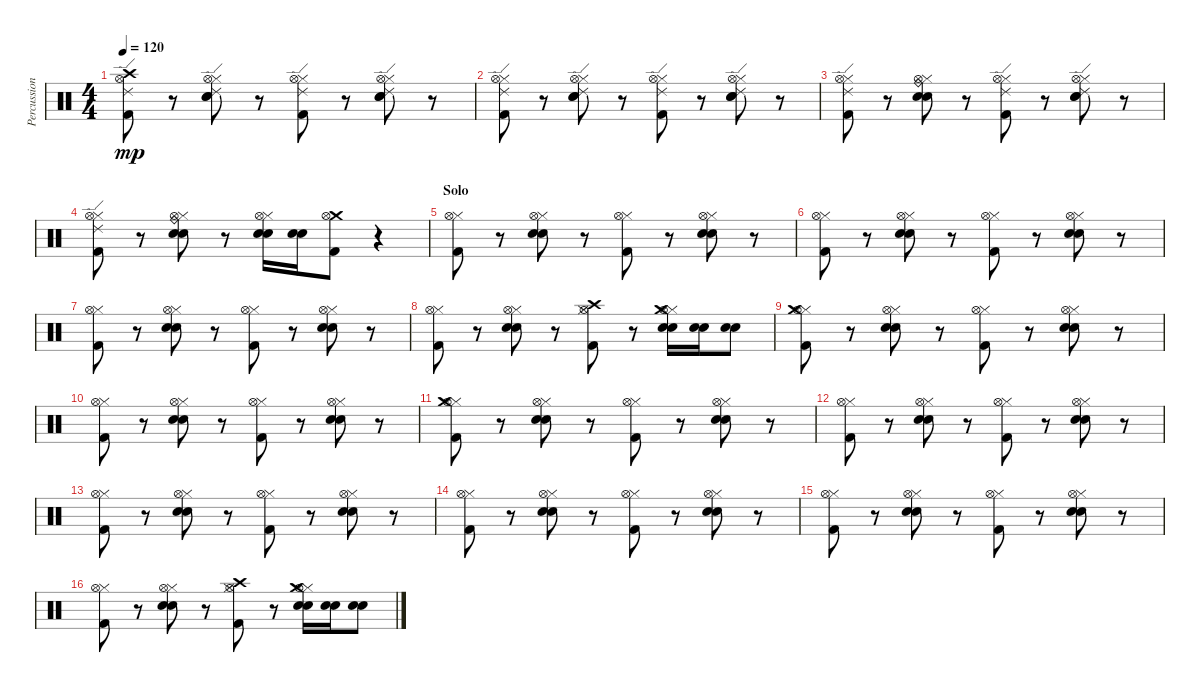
\track ("Percussion" "Percussion") {instrument percussion}
\staff {score}
\articulation defaults
\ts (4 4)
\tempo 120
\clef neutral
\ks c
("Crash high (hit)" "Hi-Hat (open)" "Ride (edge) 2" "Kick (hit) 2").8{dy mp} r.8 ("Hi-Hat (closed)" "Hi-Hat (open)" "Ride (edge) 2" "Electric Snare (hit)" "Snare (hit) 2").8 r.8 ("Hi-Hat (closed)" "Hi-Hat (open)" "Ride (edge) 2" "Kick (hit) 2").8 r.8 ("Hi-Hat (closed)" "Hi-Hat (open)" "Ride (edge) 2" "Electric Snare (hit)" "Snare (hit) 2").8 r.8 |
("Hi-Hat (closed)" "Hi-Hat (open)" "Ride (edge) 2" "Kick (hit) 2").8 r.8 ("Hi-Hat (closed)" "Hi-Hat (open)" "Ride (edge) 2" "Electric Snare (hit)" "Snare (hit) 2").8 r.8 ("Hi-Hat (closed)" "Hi-Hat (open)" "Ride (edge) 2" "Kick (hit) 2").8 r.8 ("Hi-Hat (closed)" "Hi-Hat (open)" "Ride (edge) 2" "Electric Snare (hit)" "Snare (hit) 2").8 r.8 |
("Hi-Hat (closed)" "Hi-Hat (open)" "Ride (edge) 2" "Kick (hit) 2").8 r.8 ("Hi-Hat (closed)" "Hi-Hat (open)" "Ride (bell)" "Electric Snare (hit)" "Snare (hit) 2").8 r.8 ("Hi-Hat (closed)" "Hi-Hat (open)" "Ride (edge) 2" "Kick (hit) 2").8 r.8 ("Hi-Hat (closed)" "Hi-Hat (open)" "Ride (edge) 2" "Electric Snare (hit)" "Snare (hit) 2").8 r.8 |
("Hi-Hat (closed)" "Hi-Hat (open)" "Ride (edge) 2" "Kick (hit) 2").8 r.8 ("Hi-Hat (closed)" "Hi-Hat (open)" "Ride (bell)" "Electric Snare (hit)" "Snare (hit) 2").8 r.8 ("Hi-Hat (closed)" "Hi-Hat (open)" "Electric Snare (hit)" "Snare (hit) 2").16 ("Electric Snare (hit)" "Snare (hit) 2").16 ("Crash medium (hit)" "Hi-Hat (open)" "Kick (hit) 2").8 r.4 |
\section ("" "Solo")
("Hi-Hat (closed)" "Hi-Hat (open)" "Kick (hit) 2").8 r.8 ("Hi-Hat (closed)" "Hi-Hat (open)" "Electric Snare (hit)" "Snare (hit) 2").8 r.8 ("Hi-Hat (closed)" "Hi-Hat (open)" "Kick (hit) 2").8 r.8 ("Hi-Hat (closed)" "Hi-Hat (open)" "Electric Snare (hit)" "Snare (hit) 2").8 r.8 |
("Hi-Hat (closed)" "Hi-Hat (open)" "Kick (hit) 2").8 r.8 ("Hi-Hat (closed)" "Hi-Hat (open)" "Electric Snare (hit)" "Snare (hit) 2").8 r.8 ("Hi-Hat (closed)" "Hi-Hat (open)" "Kick (hit) 2").8 r.8 ("Hi-Hat (closed)" "Hi-Hat (open)" "Electric Snare (hit)" "Snare (hit) 2").8 r.8 |
("Hi-Hat (closed)" "Hi-Hat (open)" "Kick (hit) 2").8 r.8 ("Hi-Hat (closed)" "Hi-Hat (open)" "Electric Snare (hit)" "Snare (hit) 2").8 r.8 ("Hi-Hat (closed)" "Hi-Hat (open)" "Kick (hit) 2").8 r.8 ("Hi-Hat (closed)" "Hi-Hat (open)" "Electric Snare (hit)" "Snare (hit) 2").8 r.8 |
("Hi-Hat (closed)" "Hi-Hat (open)" "Kick (hit) 2").8 r.8 ("Hi-Hat (closed)" "Hi-Hat (open)" "Electric Snare (hit)" "Snare (hit) 2").8 r.8 ("Hi-Hat (closed)" "Hi-Hat (open)" "Crash high (hit)" "Kick (hit) 2").8 r.8 ("Hi-Hat (closed)" "Hi-Hat (open)" "Crash medium (hit)" "Electric Snare (hit)" "Snare (hit) 2").16 ("Electric Snare (hit)" "Snare (hit) 2").16 ("Electric Snare (hit)" "Snare (hit) 2").8 |
("Hi-Hat (closed)" "Hi-Hat (open)" "Crash medium (hit)" "Kick (hit) 2").8 r.8 ("Hi-Hat (closed)" "Hi-Hat (open)" "Electric Snare (hit)" "Snare (hit) 2").8 r.8 ("Hi-Hat (closed)" "Hi-Hat (open)" "Kick (hit) 2").8 r.8 ("Hi-Hat (closed)" "Hi-Hat (open)" "Electric Snare (hit)" "Snare (hit) 2").8 r.8 |
("Hi-Hat (closed)" "Hi-Hat (open)" "Kick (hit) 2").8 r.8 ("Hi-Hat (closed)" "Hi-Hat (open)" "Electric Snare (hit)" "Snare (hit) 2").8 r.8 ("Hi-Hat (closed)" "Hi-Hat (open)" "Kick (hit) 2").8 r.8 ("Hi-Hat (closed)" "Hi-Hat (open)" "Electric Snare (hit)" "Snare (hit) 2").8 r.8 |
("Hi-Hat (closed)" "Hi-Hat (open)" "Crash medium (hit)" "Kick (hit) 2").8 r.8 ("Hi-Hat (closed)" "Hi-Hat (open)" "Electric Snare (hit)" "Snare (hit) 2").8 r.8 ("Hi-Hat (closed)" "Hi-Hat (open)" "Kick (hit) 2").8 r.8 ("Hi-Hat (closed)" "Hi-Hat (open)" "Electric Snare (hit)" "Snare (hit) 2").8 r.8 |
("Hi-Hat (closed)" "Hi-Hat (open)" "Kick (hit) 2").8 r.8 ("Hi-Hat (closed)" "Hi-Hat (open)" "Electric Snare (hit)" "Snare (hit) 2").8 r.8 ("Hi-Hat (closed)" "Hi-Hat (open)" "Kick (hit) 2").8 r.8 ("Hi-Hat (closed)" "Hi-Hat (open)" "Electric Snare (hit)" "Snare (hit) 2").8 r.8 |
("Hi-Hat (closed)" "Hi-Hat (open)" "Kick (hit) 2").8 r.8 ("Hi-Hat (closed)" "Hi-Hat (open)" "Electric Snare (hit)" "Snare (hit) 2").8 r.8 ("Hi-Hat (closed)" "Hi-Hat (open)" "Kick (hit) 2").8 r.8 ("Hi-Hat (closed)" "Hi-Hat (open)" "Electric Snare (hit)" "Snare (hit) 2").8 r.8 |
("Hi-Hat (closed)" "Hi-Hat (open)" "Kick (hit) 2").8 r.8 ("Hi-Hat (closed)" "Hi-Hat (open)" "Electric Snare (hit)" "Snare (hit) 2").8 r.8 ("Hi-Hat (closed)" "Hi-Hat (open)" "Kick (hit) 2").8 r.8 ("Hi-Hat (closed)" "Hi-Hat (open)" "Electric Snare (hit)" "Snare (hit) 2").8 r.8 |
("Hi-Hat (closed)" "Hi-Hat (open)" "Kick (hit) 2").8 r.8 ("Hi-Hat (closed)" "Hi-Hat (open)" "Electric Snare (hit)" "Snare (hit) 2").8 r.8 ("Hi-Hat (closed)" "Hi-Hat (open)" "Kick (hit) 2").8 r.8 ("Hi-Hat (closed)" "Hi-Hat (open)" "Electric Snare (hit)" "Snare (hit) 2").8 r.8 |
("Hi-Hat (closed)" "Hi-Hat (open)" "Kick (hit) 2").8 r.8 ("Hi-Hat (closed)" "Hi-Hat (open)" "Electric Snare (hit)" "Snare (hit) 2").8 r.8 ("Hi-Hat (closed)" "Hi-Hat (open)" "Crash high (hit)" "Kick (hit) 2").8 r.8 ("Hi-Hat (closed)" "Hi-Hat (open)" "Crash medium (hit)" "Electric Snare (hit)" "Snare (hit) 2").16 ("Electric Snare (hit)" "Snare (hit) 2").16 ("Electric Snare (hit)" "Snare (hit) 2").8
